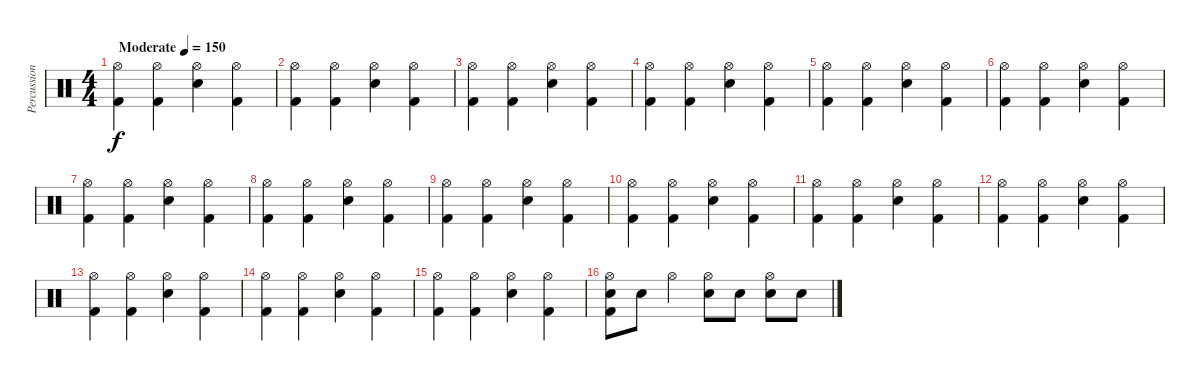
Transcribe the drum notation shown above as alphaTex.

\track ("Percussions" "Percussion") {instrument percussion}
\staff {score}
\articulation defaults
\ts (4 4)
\tempo (150 "Moderate")
\clef neutral
\ks c
("Hi-Hat (open)" "Kick (hit) 2").4{dy f} ("Hi-Hat (open)" "Kick (hit) 2").4 ("Hi-Hat (open)" "Electric Snare (hit)").4 ("Hi-Hat (open)" "Kick (hit) 2").4 |
("Hi-Hat (open)" "Kick (hit) 2").4 ("Hi-Hat (open)" "Kick (hit) 2").4 ("Hi-Hat (open)" "Electric Snare (hit)").4 ("Hi-Hat (open)" "Kick (hit) 2").4 |
("Hi-Hat (open)" "Kick (hit) 2").4 ("Hi-Hat (open)" "Kick (hit) 2").4 ("Hi-Hat (open)" "Electric Snare (hit)").4 ("Hi-Hat (open)" "Kick (hit) 2").4 |
("Hi-Hat (open)" "Kick (hit) 2").4 ("Hi-Hat (open)" "Kick (hit) 2").4 ("Hi-Hat (open)" "Electric Snare (hit)").4 ("Hi-Hat (open)" "Kick (hit) 2").4 |
("Hi-Hat (open)" "Kick (hit) 2").4 ("Hi-Hat (open)" "Kick (hit) 2").4 ("Hi-Hat (open)" "Electric Snare (hit)").4 ("Hi-Hat (open)" "Kick (hit) 2").4 |
("Hi-Hat (open)" "Kick (hit) 2").4 ("Hi-Hat (open)" "Kick (hit) 2").4 ("Hi-Hat (open)" "Electric Snare (hit)").4 ("Hi-Hat (open)" "Kick (hit) 2").4 |
("Hi-Hat (open)" "Kick (hit) 2").4 ("Hi-Hat (open)" "Kick (hit) 2").4 ("Hi-Hat (open)" "Electric Snare (hit)").4 ("Hi-Hat (open)" "Kick (hit) 2").4 |
("Hi-Hat (open)" "Kick (hit) 2").4 ("Hi-Hat (open)" "Kick (hit) 2").4 ("Hi-Hat (open)" "Electric Snare (hit)").4 ("Hi-Hat (open)" "Kick (hit) 2").4 |
("Hi-Hat (open)" "Kick (hit) 2").4 ("Hi-Hat (open)" "Kick (hit) 2").4 ("Hi-Hat (open)" "Electric Snare (hit)").4 ("Hi-Hat (open)" "Kick (hit) 2").4 |
("Hi-Hat (open)" "Kick (hit) 2").4 ("Hi-Hat (open)" "Kick (hit) 2").4 ("Hi-Hat (open)" "Electric Snare (hit)").4 ("Hi-Hat (open)" "Kick (hit) 2").4 |
("Hi-Hat (open)" "Kick (hit) 2").4 ("Hi-Hat (open)" "Kick (hit) 2").4 ("Hi-Hat (open)" "Electric Snare (hit)").4 ("Hi-Hat (open)" "Kick (hit) 2").4 |
("Hi-Hat (open)" "Kick (hit) 2").4 ("Hi-Hat (open)" "Kick (hit) 2").4 ("Hi-Hat (open)" "Electric Snare (hit)").4 ("Hi-Hat (open)" "Kick (hit) 2").4 |
("Hi-Hat (open)" "Kick (hit) 2").4 ("Hi-Hat (open)" "Kick (hit) 2").4 ("Hi-Hat (open)" "Electric Snare (hit)").4 ("Hi-Hat (open)" "Kick (hit) 2").4 |
("Hi-Hat (open)" "Kick (hit) 2").4 ("Hi-Hat (open)" "Kick (hit) 2").4 ("Hi-Hat (open)" "Electric Snare (hit)").4 ("Hi-Hat (open)" "Kick (hit) 2").4 |
("Hi-Hat (open)" "Kick (hit) 2").4 ("Hi-Hat (open)" "Kick (hit) 2").4 ("Hi-Hat (open)" "Electric Snare (hit)").4 ("Hi-Hat (open)" "Kick (hit) 2").4 |
("Hi-Hat (open)" "Snare (hit) 2" "Kick (hit) 2").8 "Snare (hit) 2".8 "Hi-Hat (open)".4 ("Hi-Hat (open)" "Snare (hit) 2").8 "Snare (hit) 2".8 ("Hi-Hat (open)" "Snare (hit) 2").8 "Snare (hit) 2".8
